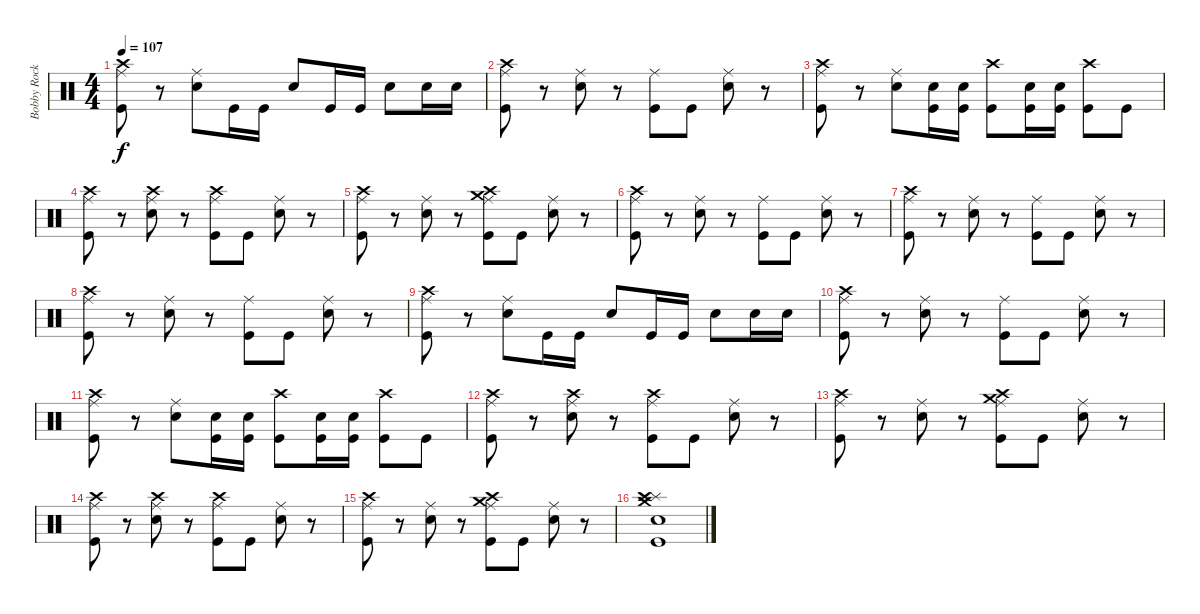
\track ("Bobby Rock - drums" "Bobby Rock") {instrument percussion}
\staff {score}
\articulation defaults
\ts (4 4)
\tempo 107
\clef neutral
\ks c
("Ride (middle)" "Crash high (hit)" "Kick (hit)").8{dy f} r.8 ("Ride (middle)" "Snare (hit) 2").8 "Kick (hit)".16 "Kick (hit)".16 "Snare (hit) 2".8 "Kick (hit)".16 "Kick (hit)".16 "Snare (hit) 2".8 "Snare (hit) 2".16 "Snare (hit) 2".16 |
("Ride (middle)" "Crash high (hit)" "Kick (hit)").8 r.8 ("Ride (middle)" "Snare (hit) 2").8 r.8 ("Ride (middle)" "Kick (hit)").8 "Kick (hit)".8 ("Ride (middle)" "Snare (hit) 2").8 r.8 |
("Ride (middle)" "Crash high (hit)" "Kick (hit)").8 r.8 ("Ride (middle)" "Snare (hit) 2").8 ("Snare (hit) 2" "Kick (hit)").16 ("Snare (hit) 2" "Kick (hit)").16 ("Crash high (hit)" "Kick (hit)").8 ("Snare (hit) 2" "Kick (hit)").16 ("Snare (hit) 2" "Kick (hit)").16 ("Crash high (hit)" "Kick (hit)").8 "Kick (hit)".8 |
("Ride (middle)" "Crash high (hit)" "Kick (hit)").8 r.8 ("Ride (middle)" "Crash high (hit)" "Snare (hit) 2").8 r.8 ("Ride (middle)" "Crash high (hit)" "Kick (hit)").8 "Kick (hit)".8 ("Ride (middle)" "Snare (hit) 2").8 r.8 |
("Ride (middle)" "Crash high (hit)" "Kick (hit)").8 r.8 ("Ride (middle)" "Snare (hit) 2").8 r.8 ("Ride (middle)" "Crash medium (hit)" "Crash high (hit)" "Kick (hit)").8 "Kick (hit)".8 ("Ride (middle)" "Snare (hit) 2").8 r.8 |
("Ride (middle)" "Crash high (hit)" "Kick (hit)").8 r.8 ("Ride (middle)" "Snare (hit) 2").8 r.8 ("Ride (middle)" "Kick (hit)").8 "Kick (hit)".8 ("Ride (middle)" "Snare (hit) 2").8 r.8 |
("Ride (middle)" "Crash high (hit)" "Kick (hit)").8 r.8 ("Ride (middle)" "Snare (hit) 2").8 r.8 ("Ride (middle)" "Kick (hit)").8 "Kick (hit)".8 ("Ride (middle)" "Snare (hit) 2").8 r.8 |
("Ride (middle)" "Crash high (hit)" "Kick (hit)").8 r.8 ("Ride (middle)" "Snare (hit) 2").8 r.8 ("Ride (middle)" "Kick (hit)").8 "Kick (hit)".8 ("Ride (middle)" "Snare (hit) 2").8 r.8 |
("Ride (middle)" "Crash high (hit)" "Kick (hit)").8 r.8 ("Ride (middle)" "Snare (hit) 2").8 "Kick (hit)".16 "Kick (hit)".16 "Snare (hit) 2".8 "Kick (hit)".16 "Kick (hit)".16 "Snare (hit) 2".8 "Snare (hit) 2".16 "Snare (hit) 2".16 |
("Ride (middle)" "Crash high (hit)" "Kick (hit)").8 r.8 ("Ride (middle)" "Snare (hit) 2").8 r.8 ("Ride (middle)" "Kick (hit)").8 "Kick (hit)".8 ("Ride (middle)" "Snare (hit) 2").8 r.8 |
("Ride (middle)" "Crash high (hit)" "Kick (hit)").8 r.8 ("Ride (middle)" "Snare (hit) 2").8 ("Snare (hit) 2" "Kick (hit)").16 ("Snare (hit) 2" "Kick (hit)").16 ("Crash high (hit)" "Kick (hit)").8 ("Snare (hit) 2" "Kick (hit)").16 ("Snare (hit) 2" "Kick (hit)").16 ("Crash high (hit)" "Kick (hit)").8 "Kick (hit)".8 |
("Ride (middle)" "Crash high (hit)" "Kick (hit)").8 r.8 ("Ride (middle)" "Crash high (hit)" "Snare (hit) 2").8 r.8 ("Ride (middle)" "Crash high (hit)" "Kick (hit)").8 "Kick (hit)".8 ("Ride (middle)" "Snare (hit) 2").8 r.8 |
("Ride (middle)" "Crash high (hit)" "Kick (hit)").8 r.8 ("Ride (middle)" "Snare (hit) 2").8 r.8 ("Ride (middle)" "Crash medium (hit)" "Crash high (hit)" "Kick (hit)").8 "Kick (hit)".8 ("Ride (middle)" "Snare (hit) 2").8 r.8 |
("Ride (middle)" "Crash high (hit)" "Kick (hit)").8 r.8 ("Ride (middle)" "Crash high (hit)" "Snare (hit) 2").8 r.8 ("Ride (middle)" "Crash high (hit)" "Kick (hit)").8 "Kick (hit)".8 ("Ride (middle)" "Snare (hit) 2").8 r.8 |
("Ride (middle)" "Crash high (hit)" "Kick (hit)").8 r.8 ("Ride (middle)" "Snare (hit) 2").8 r.8 ("Ride (middle)" "Crash medium (hit)" "Crash high (hit)" "Kick (hit)").8 "Kick (hit)".8 ("Ride (middle)" "Snare (hit) 2").8 r.8 |
("Splash (hit)" "Crash medium (hit)" "Crash high (hit)" "Snare (hit) 2" "Kick (hit)").1
